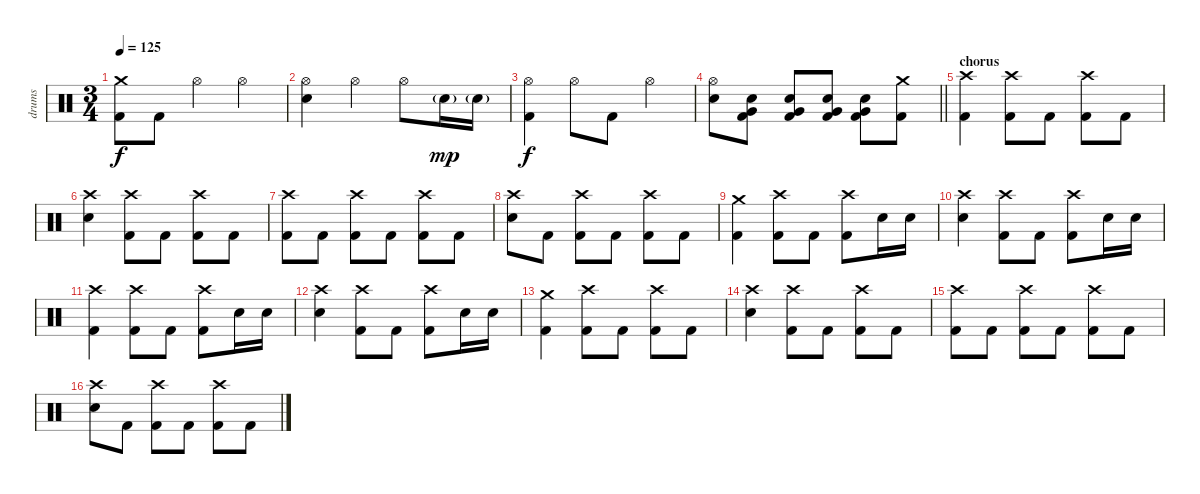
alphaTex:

\track ("drums" "drums") {instrument percussion}
\staff {score}
\articulation defaults
\ts (3 4)
\tempo 125
\clef neutral
\ks c
("Crash medium (hit)" "Kick (hit) 2").8{dy f} "Kick (hit) 2".8 "Hi-Hat (open)".4 "Hi-Hat (open)".4 |
("Hi-Hat (open)" "Electric Snare (hit)").4 "Hi-Hat (open)".4 "Hi-Hat (open)".8 "Electric Snare (hit)"{g}.16{dy mp} "Electric Snare (hit)"{g}.16 |
("Hi-Hat (open)" "Kick (hit) 2").4{dy f} "Hi-Hat (open)".8 "Kick (hit) 2".8 "Hi-Hat (open)".4 |
\barLineRight lightlight
("Hi-Hat (open)" "Electric Snare (hit)").8 ("Very Low Tom (hit)" "Electric Snare (hit)" "Kick (hit) 2").8 ("Very Low Tom (hit)" "Electric Snare (hit)" "Kick (hit) 2").8 ("Very Low Tom (hit)" "Electric Snare (hit)" "Kick (hit) 2").8 ("Very Low Tom (hit)" "Electric Snare (hit)" "Kick (hit) 2").8 ("Crash medium (hit)" "Kick (hit) 2").8 |
\section ("" "chorus")
("Crash high (hit)" "Kick (hit) 2").4 ("Crash high (hit)" "Kick (hit) 2").8 "Kick (hit) 2".8 ("Crash high (hit)" "Kick (hit) 2").8 "Kick (hit) 2".8 |
("Crash high (hit)" "Electric Snare (hit)").4 ("Crash high (hit)" "Kick (hit) 2").8 "Kick (hit) 2".8 ("Crash high (hit)" "Kick (hit) 2").8 "Kick (hit) 2".8 |
("Crash high (hit)" "Kick (hit) 2").8 "Kick (hit) 2".8 ("Crash high (hit)" "Kick (hit) 2").8 "Kick (hit) 2".8 ("Crash high (hit)" "Kick (hit) 2").8 "Kick (hit) 2".8 |
("Crash high (hit)" "Electric Snare (hit)").8 "Kick (hit) 2".8 ("Crash high (hit)" "Kick (hit) 2").8 "Kick (hit) 2".8 ("Crash high (hit)" "Kick (hit) 2").8 "Kick (hit) 2".8 |
("Crash medium (hit)" "Kick (hit) 2").4 ("Crash high (hit)" "Kick (hit) 2").8 "Kick (hit) 2".8 ("Crash high (hit)" "Kick (hit) 2").8 "Electric Snare (hit)".16 "Electric Snare (hit)".16 |
("Crash high (hit)" "Electric Snare (hit)").4 ("Crash high (hit)" "Kick (hit) 2").8 "Kick (hit) 2".8 ("Crash high (hit)" "Kick (hit) 2").8 "Electric Snare (hit)".16 "Electric Snare (hit)".16 |
("Crash high (hit)" "Kick (hit) 2").4 ("Crash high (hit)" "Kick (hit) 2").8 "Kick (hit) 2".8 ("Crash high (hit)" "Kick (hit) 2").8 "Electric Snare (hit)".16 "Electric Snare (hit)".16 |
("Crash high (hit)" "Electric Snare (hit)").4 ("Crash high (hit)" "Kick (hit) 2").8 "Kick (hit) 2".8 ("Crash high (hit)" "Kick (hit) 2").8 "Electric Snare (hit)".16 "Electric Snare (hit)".16 |
("Crash medium (hit)" "Kick (hit) 2").4 ("Crash high (hit)" "Kick (hit) 2").8 "Kick (hit) 2".8 ("Crash high (hit)" "Kick (hit) 2").8 "Kick (hit) 2".8 |
("Crash high (hit)" "Electric Snare (hit)").4 ("Crash high (hit)" "Kick (hit) 2").8 "Kick (hit) 2".8 ("Crash high (hit)" "Kick (hit) 2").8 "Kick (hit) 2".8 |
("Crash high (hit)" "Kick (hit) 2").8 "Kick (hit) 2".8 ("Crash high (hit)" "Kick (hit) 2").8 "Kick (hit) 2".8 ("Crash high (hit)" "Kick (hit) 2").8 "Kick (hit) 2".8 |
("Crash high (hit)" "Electric Snare (hit)").8 "Kick (hit) 2".8 ("Crash high (hit)" "Kick (hit) 2").8 "Kick (hit) 2".8 ("Crash high (hit)" "Kick (hit) 2").8 "Kick (hit) 2".8
